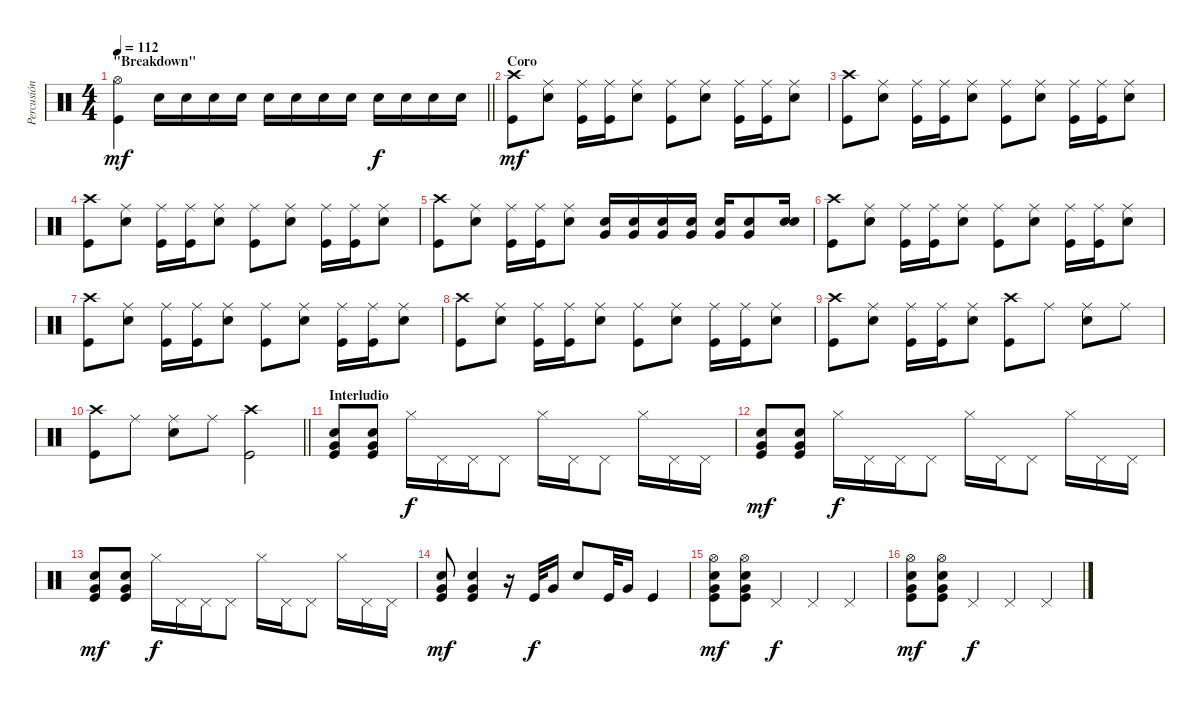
\track ("Percusión" "Percusión") {instrument percussion}
\staff {score}
\articulation defaults
\ts (4 4)
\section ("" "\"Breakdown\"")
\tempo 112
\clef neutral
\barLineRight lightlight
\ks c
("Hi-Hat (open)" "Kick (hit)").4{dy mf} "Snare (hit) 2".16 "Snare (hit) 2".16 "Snare (hit) 2".16 "Snare (hit) 2".16 "Snare (hit) 2".16 "Snare (hit) 2".16 "Snare (hit) 2".16 "Snare (hit) 2".16 "Snare (hit) 2".16{dy f} "Snare (hit) 2".16 "Snare (hit) 2".16 "Snare (hit) 2".16 |
\section ("" "Coro")
("Crash high (hit)" "Kick (hit)").8{dy mf} ("Ride (middle)" "Snare (hit) 2").8 ("Ride (middle)" "Kick (hit)").16 ("Ride (middle)" "Kick (hit)").16 ("Ride (middle)" "Snare (hit) 2").8 ("Ride (middle)" "Kick (hit)").8 ("Ride (middle)" "Snare (hit) 2").8 ("Ride (middle)" "Kick (hit)").16 ("Ride (middle)" "Kick (hit)").16 ("Ride (middle)" "Snare (hit) 2").8 |
("Crash high (hit)" "Kick (hit)").8 ("Ride (middle)" "Snare (hit) 2").8 ("Ride (middle)" "Kick (hit)").16 ("Ride (middle)" "Kick (hit)").16 ("Ride (middle)" "Snare (hit) 2").8 ("Ride (middle)" "Kick (hit)").8 ("Ride (middle)" "Snare (hit) 2").8 ("Ride (middle)" "Kick (hit)").16 ("Ride (middle)" "Kick (hit)").16 ("Ride (middle)" "Snare (hit) 2").8 |
("Crash high (hit)" "Kick (hit)").8 ("Ride (middle)" "Snare (hit) 2").8 ("Ride (middle)" "Kick (hit)").16 ("Ride (middle)" "Kick (hit)").16 ("Ride (middle)" "Snare (hit) 2").8 ("Ride (middle)" "Kick (hit)").8 ("Ride (middle)" "Snare (hit) 2").8 ("Ride (middle)" "Kick (hit)").16 ("Ride (middle)" "Kick (hit)").16 ("Ride (middle)" "Snare (hit) 2").8 |
("Crash high (hit)" "Kick (hit)").8 ("Ride (middle)" "Snare (hit) 2").8 ("Ride (middle)" "Kick (hit)").16 ("Ride (middle)" "Kick (hit)").16 ("Ride (middle)" "Snare (hit) 2").8 ("Very Low Tom (hit)" "Snare (hit) 2").16 ("Very Low Tom (hit)" "Snare (hit) 2").16 ("Very Low Tom (hit)" "Snare (hit) 2").16 ("Very Low Tom (hit)" "Snare (hit) 2").16 ("Very Low Tom (hit)" "Snare (hit) 2").16 ("Very Low Tom (hit)" "Snare (hit) 2").8 ("Snare (hit) 2" "Snare (hit) 2").16 |
("Crash high (hit)" "Kick (hit)").8 ("Ride (middle)" "Snare (hit) 2").8 ("Ride (middle)" "Kick (hit)").16 ("Ride (middle)" "Kick (hit)").16 ("Ride (middle)" "Snare (hit) 2").8 ("Ride (middle)" "Kick (hit)").8 ("Ride (middle)" "Snare (hit) 2").8 ("Ride (middle)" "Kick (hit)").16 ("Ride (middle)" "Kick (hit)").16 ("Ride (middle)" "Snare (hit) 2").8 |
("Crash high (hit)" "Kick (hit)").8 ("Ride (middle)" "Snare (hit) 2").8 ("Ride (middle)" "Kick (hit)").16 ("Ride (middle)" "Kick (hit)").16 ("Ride (middle)" "Snare (hit) 2").8 ("Ride (middle)" "Kick (hit)").8 ("Ride (middle)" "Snare (hit) 2").8 ("Ride (middle)" "Kick (hit)").16 ("Ride (middle)" "Kick (hit)").16 ("Ride (middle)" "Snare (hit) 2").8 |
("Crash high (hit)" "Kick (hit)").8 ("Ride (middle)" "Snare (hit) 2").8 ("Ride (middle)" "Kick (hit)").16 ("Ride (middle)" "Kick (hit)").16 ("Ride (middle)" "Snare (hit) 2").8 ("Ride (middle)" "Kick (hit)").8 ("Ride (middle)" "Snare (hit) 2").8 ("Ride (middle)" "Kick (hit)").16 ("Ride (middle)" "Kick (hit)").16 ("Ride (middle)" "Snare (hit) 2").8 |
("Crash high (hit)" "Kick (hit)").8 ("Ride (middle)" "Snare (hit) 2").8 ("Ride (middle)" "Kick (hit)").16 ("Ride (middle)" "Kick (hit)").16 ("Ride (middle)" "Snare (hit) 2").8 ("Crash high (hit)" "Kick (hit)").8 "Ride (middle)".8 ("Ride (middle)" "Snare (hit) 2").8 "Ride (middle)".8 |
\barLineRight lightlight
("Crash high (hit)" "Kick (hit)").8 "Ride (middle)".8 ("Ride (middle)" "Snare (hit) 2").8 "Ride (middle)".8 ("Crash high (hit)" "Kick (hit)").2 |
\section ("" "Interludio")
("Snare (hit) 2" "Very Low Tom (hit)" "Kick (hit)").8 ("Snare (hit) 2" "Very Low Tom (hit)" "Kick (hit)").8 "Hi-Hat (closed)".16{dy f} "Pedal Hi-Hat (hit)".16 "Pedal Hi-Hat (hit)".16 "Pedal Hi-Hat (hit)".8 "Hi-Hat (closed)".16 "Pedal Hi-Hat (hit)".16 "Pedal Hi-Hat (hit)".8 "Hi-Hat (closed)".16 "Pedal Hi-Hat (hit)".16 "Pedal Hi-Hat (hit)".16 |
("Snare (hit) 2" "Very Low Tom (hit)" "Kick (hit)").8{dy mf} ("Snare (hit) 2" "Very Low Tom (hit)" "Kick (hit)").8 "Hi-Hat (closed)".16{dy f} "Pedal Hi-Hat (hit)".16 "Pedal Hi-Hat (hit)".16 "Pedal Hi-Hat (hit)".8 "Hi-Hat (closed)".16 "Pedal Hi-Hat (hit)".16 "Pedal Hi-Hat (hit)".8 "Hi-Hat (closed)".16 "Pedal Hi-Hat (hit)".16 "Pedal Hi-Hat (hit)".16 |
("Snare (hit) 2" "Very Low Tom (hit)" "Kick (hit)").8{dy mf} ("Snare (hit) 2" "Very Low Tom (hit)" "Kick (hit)").8 "Hi-Hat (closed)".16{dy f} "Pedal Hi-Hat (hit)".16 "Pedal Hi-Hat (hit)".16 "Pedal Hi-Hat (hit)".8 "Hi-Hat (closed)".16 "Pedal Hi-Hat (hit)".16 "Pedal Hi-Hat (hit)".8 "Hi-Hat (closed)".16 "Pedal Hi-Hat (hit)".16 "Pedal Hi-Hat (hit)".16 |
("Snare (hit) 2" "Very Low Tom (hit)" "Kick (hit)").8{dy mf} ("Snare (hit) 2" "Very Low Tom (hit)" "Kick (hit)").4 r.16 "Kick (hit)".32{dy f} "Very Low Tom (hit)".16 "Snare (hit) 2".8 "Kick (hit)".32 "Very Low Tom (hit)".16 "Kick (hit)".4 |
("Snare (hit) 2" "Very Low Tom (hit)" "Hi-Hat (open)" "Kick (hit)").8{dy mf} ("Snare (hit) 2" "Very Low Tom (hit)" "Hi-Hat (open)" "Kick (hit)").8 "Pedal Hi-Hat (hit)".4{dy f} "Pedal Hi-Hat (hit)".4 "Pedal Hi-Hat (hit)".4 |
("Snare (hit) 2" "Very Low Tom (hit)" "Hi-Hat (open)" "Kick (hit)").8{dy mf} ("Snare (hit) 2" "Very Low Tom (hit)" "Hi-Hat (open)" "Kick (hit)").8 "Pedal Hi-Hat (hit)".4{dy f} "Pedal Hi-Hat (hit)".4 "Pedal Hi-Hat (hit)".4
